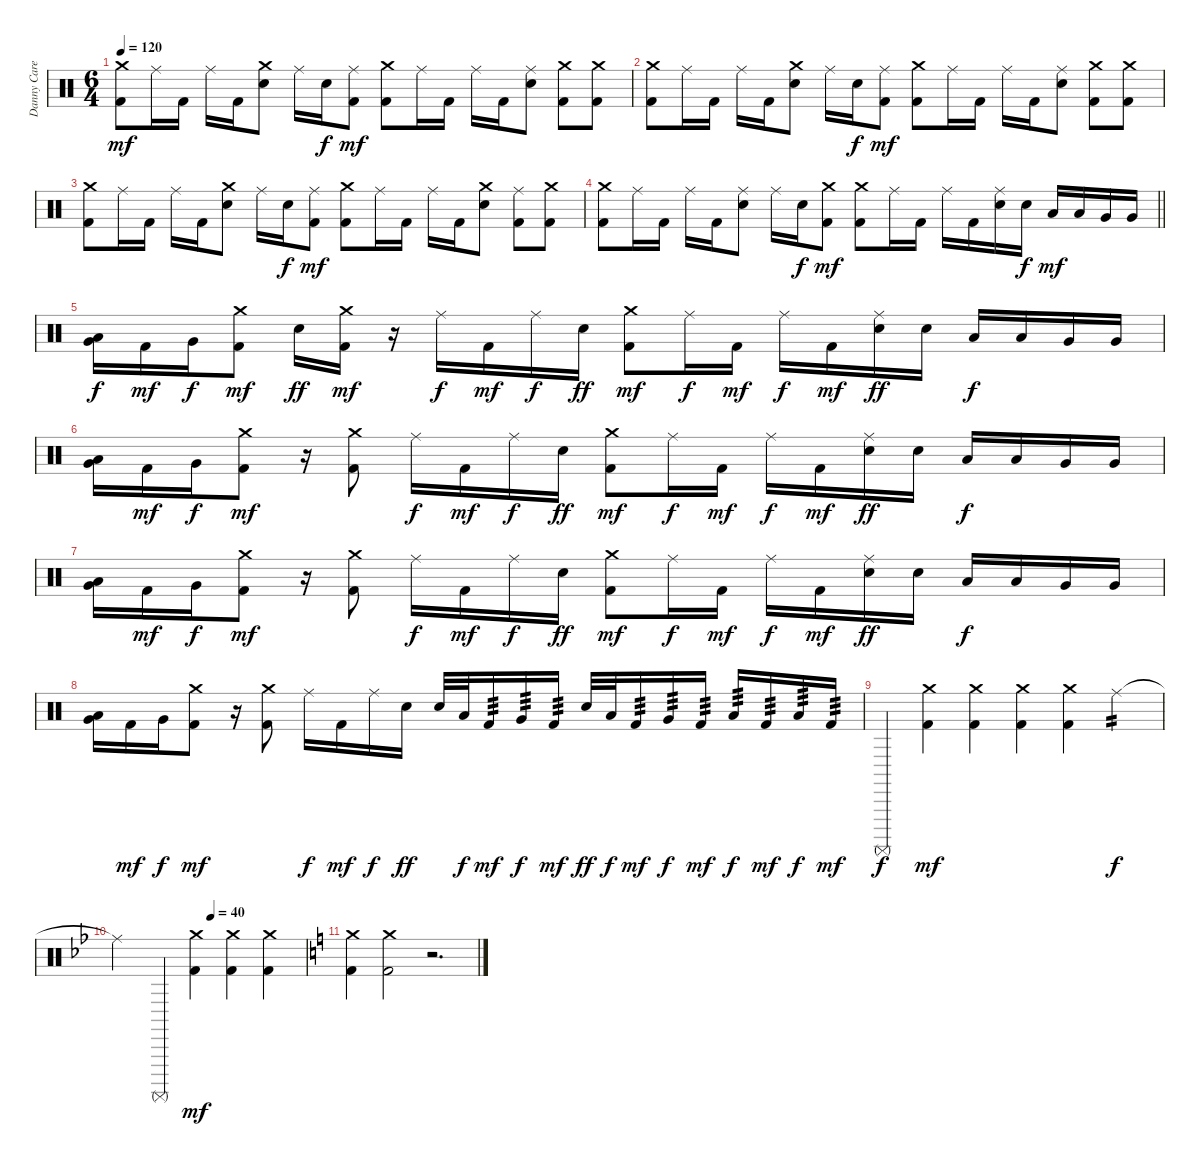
\track ("Danny Carey" "Danny Care") {instrument percussion}
\staff {score}
\articulation defaults
\ts (6 4)
\tempo 120
\clef neutral
\ks c
("Crash medium (hit)" "Kick (hit) 2").8{dy mf} "Ride (middle)".16 "Kick (hit) 2".16 "Ride (middle)".16 "Kick (hit) 2".16 ("Crash medium (hit)" "Snare (hit) 2").8 "Ride (middle)".16 "Snare (hit) 2".16{dy f} ("Ride (middle)" "Kick (hit) 2").8{dy mf} ("Crash medium (hit)" "Kick (hit) 2").8 "Ride (middle)".16 "Kick (hit) 2".16 "Ride (middle)".16 "Kick (hit) 2".16 ("Ride (middle)" "Snare (hit) 2").8 ("Crash medium (hit)" "Kick (hit) 2").8 ("Crash medium (hit)" "Kick (hit) 2").8 |
("Crash medium (hit)" "Kick (hit) 2").8 "Ride (middle)".16 "Kick (hit) 2".16 "Ride (middle)".16 "Kick (hit) 2".16 ("Crash medium (hit)" "Snare (hit) 2").8 "Ride (middle)".16 "Snare (hit) 2".16{dy f} ("Ride (middle)" "Kick (hit) 2").8{dy mf} ("Crash medium (hit)" "Kick (hit) 2").8 "Ride (middle)".16 "Kick (hit) 2".16 "Ride (middle)".16 "Kick (hit) 2".16 ("Ride (middle)" "Snare (hit) 2").8 ("Crash medium (hit)" "Kick (hit) 2").8 ("Crash medium (hit)" "Kick (hit) 2").8 |
("Crash medium (hit)" "Kick (hit) 2").8 "Ride (middle)".16 "Kick (hit) 2".16 "Ride (middle)".16 "Kick (hit) 2".16 ("Crash medium (hit)" "Snare (hit) 2").8 "Ride (middle)".16 "Snare (hit) 2".16{dy f} ("Ride (middle)" "Kick (hit) 2").8{dy mf} ("Crash medium (hit)" "Kick (hit) 2").8 "Ride (middle)".16 "Kick (hit) 2".16 "Ride (middle)".16 "Kick (hit) 2".16 ("Crash medium (hit)" "Snare (hit) 2").8 ("Ride (middle)" "Kick (hit) 2").8 ("Crash medium (hit)" "Kick (hit) 2").8 |
\barLineRight lightlight
("Crash medium (hit)" "Kick (hit) 2").8 "Ride (middle)".16 "Kick (hit) 2".16 "Ride (middle)".16 "Kick (hit) 2".16 ("Ride (middle)" "Snare (hit) 2").8 "Ride (middle)".16 "Snare (hit) 2".16{dy f} ("Crash medium (hit)" "Kick (hit) 2").8{dy mf} ("Crash medium (hit)" "Kick (hit) 2").8 "Ride (middle)".16 "Kick (hit) 2".16 "Ride (middle)".16 "Kick (hit) 2".16 ("Ride (middle)" "Snare (hit) 2").16 "Snare (hit) 2".16{dy f} "Low Tom (hit)".16{dy mf} "Low Tom (hit)".16 "Very Low Tom (hit)".16 "Very Low Tom (hit)".16 |
\section ("" "")
("Very Low Tom (hit)" "Low Floor Tom (hit)").16{dy f} "Kick (hit) 2".16{dy mf} "Very Low Tom (hit)".16{dy f} ("Crash medium (hit)" "Kick (hit) 2").8{dy mf} "Snare (hit) 2".16{dy ff} ("Crash medium (hit)" "Kick (hit) 2").16{dy mf} r.16 "Ride (middle)".16{dy f} "Kick (hit) 2".16{dy mf} "Ride (middle)".16{dy f} "Snare (hit) 2".16{dy ff} ("Crash medium (hit)" "Kick (hit) 2").8{dy mf} "Ride (middle)".16{dy f} "Kick (hit) 2".16{dy mf} "Ride (middle)".16{dy f} "Kick (hit) 2".16{dy mf} ("Ride (middle)" "Snare (hit) 2").16{dy ff} "Snare (hit) 2".16 "Low Tom (hit)".16{dy f} "Low Tom (hit)".16 "Very Low Tom (hit)".16 "Very Low Tom (hit)".16 |
("Very Low Tom (hit)" "Low Floor Tom (hit)").16 "Kick (hit) 2".16{dy mf} "Very Low Tom (hit)".16{dy f} ("Crash medium (hit)" "Kick (hit) 2").8{dy mf} r.16 ("Crash medium (hit)" "Kick (hit) 2").8 "Ride (middle)".16{dy f} "Kick (hit) 2".16{dy mf} "Ride (middle)".16{dy f} "Snare (hit) 2".16{dy ff} ("Crash medium (hit)" "Kick (hit) 2").8{dy mf} "Ride (middle)".16{dy f} "Kick (hit) 2".16{dy mf} "Ride (middle)".16{dy f} "Kick (hit) 2".16{dy mf} ("Ride (middle)" "Snare (hit) 2").16{dy ff} "Snare (hit) 2".16 "Low Tom (hit)".16{dy f} "Low Tom (hit)".16 "Very Low Tom (hit)".16 "Very Low Tom (hit)".16 |
("Very Low Tom (hit)" "Low Floor Tom (hit)").16 "Kick (hit) 2".16{dy mf} "Very Low Tom (hit)".16{dy f} ("Crash medium (hit)" "Kick (hit) 2").8{dy mf} r.16 ("Crash medium (hit)" "Kick (hit) 2").8 "Ride (middle)".16{dy f} "Kick (hit) 2".16{dy mf} "Ride (middle)".16{dy f} "Snare (hit) 2".16{dy ff} ("Crash medium (hit)" "Kick (hit) 2").8{dy mf} "Ride (middle)".16{dy f} "Kick (hit) 2".16{dy mf} "Ride (middle)".16{dy f} "Kick (hit) 2".16{dy mf} ("Ride (middle)" "Snare (hit) 2").16{dy ff} "Snare (hit) 2".16 "Low Tom (hit)".16{dy f} "Low Tom (hit)".16 "Very Low Tom (hit)".16 "Very Low Tom (hit)".16 |
("Very Low Tom (hit)" "Low Floor Tom (hit)").16 "Kick (hit) 2".16{dy mf} "Very Low Tom (hit)".16{dy f} ("Crash medium (hit)" "Kick (hit) 2").8{dy mf} r.16 ("Crash medium (hit)" "Kick (hit) 2").8 "Ride (middle)".16{dy f} "Kick (hit) 2".16{dy mf} "Ride (middle)".16{dy f} "Snare (hit) 2".16{dy ff} "Snare (hit) 2".32 "Low Tom (hit)".32{dy f} "Kick (hit) 2".16{tp 3 dy mf} "Very Low Tom (hit)".16{tp 3 dy f} "Kick (hit) 2".16{tp 3 dy mf} "Snare (hit) 2".32{dy ff} "Low Tom (hit)".32{dy f} "Kick (hit) 2".16{tp 3 dy mf} "Very Low Tom (hit)".16{tp 3 dy f} "Kick (hit) 2".16{tp 3 dy mf} "Low Floor Tom (hit)".16{tp 3 dy f} "Kick (hit) 2".16{tp 3 dy mf} "Low Floor Tom (hit)".16{tp 3 dy f} "Kick (hit) 2".16{tp 3 dy mf} |
"Surdo (mute)".4{dy f} ("Crash medium (hit)" "Kick (hit) 2").4{dy mf} ("Crash medium (hit)" "Kick (hit) 2").4 ("Crash medium (hit)" "Kick (hit) 2").4 ("Crash medium (hit)" "Kick (hit) 2").4 "Ride (middle)".4{tp 2 dy f} |
\tempo (40 0.5)
\ks bb "Ride (middle)"{t}.2 "Surdo (mute)".4
("Crash medium (hit)" "Kick (hit) 2").4{dy mf} ("Crash medium (hit)" "Kick (hit) 2").4 ("Crash medium (hit)" "Kick (hit) 2").4 |
\ks c
("Crash medium (hit)" "Kick (hit) 2").4 ("Crash medium (hit)" "Kick (hit) 2").2 r.2{d}
